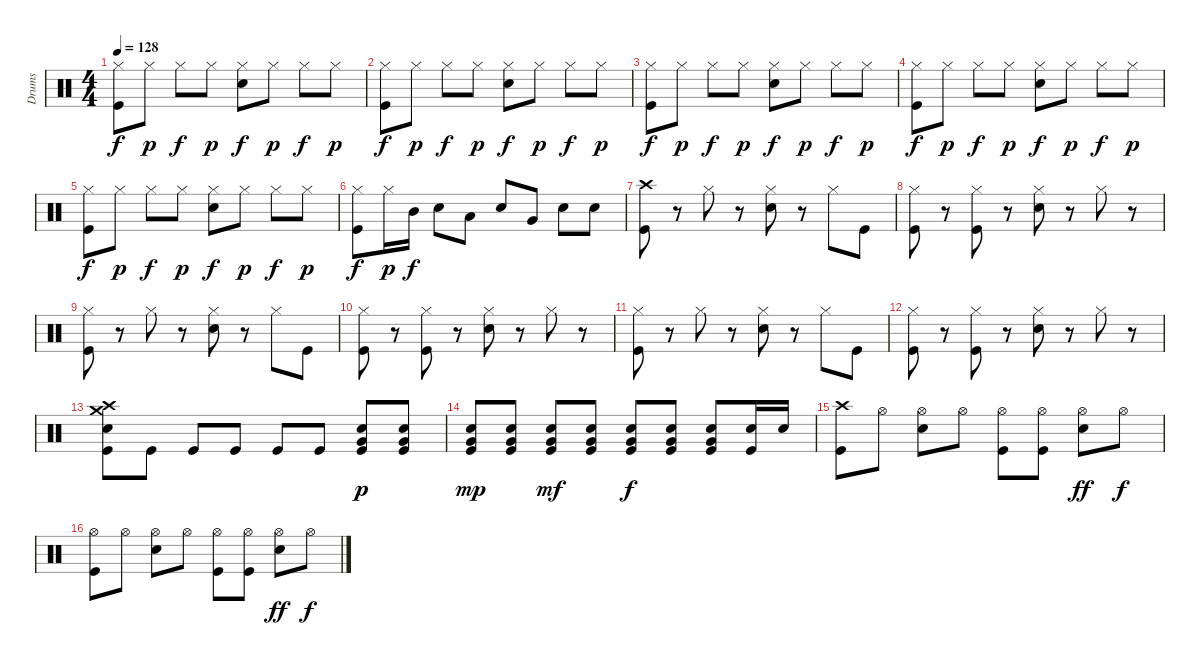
\track ("Drums" "Drums") {instrument percussion}
\staff {score}
\articulation defaults
\ts (4 4)
\tempo 128
\clef neutral
\ks c
("Hi-Hat (closed)" "Kick (hit)").8{dy f} "Hi-Hat (closed)".8{dy p} "Hi-Hat (closed)".8{dy f} "Hi-Hat (closed)".8{dy p} ("Hi-Hat (closed)" "Snare (hit) 2").8{dy f} "Hi-Hat (closed)".8{dy p} "Hi-Hat (closed)".8{dy f} "Hi-Hat (closed)".8{dy p} |
("Hi-Hat (closed)" "Kick (hit)").8{dy f} "Hi-Hat (closed)".8{dy p} "Hi-Hat (closed)".8{dy f} "Hi-Hat (closed)".8{dy p} ("Hi-Hat (closed)" "Snare (hit) 2").8{dy f} "Hi-Hat (closed)".8{dy p} "Hi-Hat (closed)".8{dy f} "Hi-Hat (closed)".8{dy p} |
("Hi-Hat (closed)" "Kick (hit)").8{dy f} "Hi-Hat (closed)".8{dy p} "Hi-Hat (closed)".8{dy f} "Hi-Hat (closed)".8{dy p} ("Hi-Hat (closed)" "Snare (hit) 2").8{dy f} "Hi-Hat (closed)".8{dy p} "Hi-Hat (closed)".8{dy f} "Hi-Hat (closed)".8{dy p} |
("Hi-Hat (closed)" "Kick (hit)").8{dy f} "Hi-Hat (closed)".8{dy p} "Hi-Hat (closed)".8{dy f} "Hi-Hat (closed)".8{dy p} ("Hi-Hat (closed)" "Snare (hit) 2").8{dy f} "Hi-Hat (closed)".8{dy p} "Hi-Hat (closed)".8{dy f} "Hi-Hat (closed)".8{dy p} |
("Hi-Hat (closed)" "Kick (hit)").8{dy f} "Hi-Hat (closed)".8{dy p} "Hi-Hat (closed)".8{dy f} "Hi-Hat (closed)".8{dy p} ("Hi-Hat (closed)" "Snare (hit) 2").8{dy f} "Hi-Hat (closed)".8{dy p} "Hi-Hat (closed)".8{dy f} "Hi-Hat (closed)".8{dy p} |
("Hi-Hat (closed)" "Kick (hit)").8{dy f} "Hi-Hat (closed)".16{dy p} "Mid Tom (hit)".16{dy f} "Snare (hit) 2".8 "Low Tom (hit)".8 "Snare (hit) 2".8 "Very Low Tom (hit)".8 "Snare (hit) 2".8 "Snare (hit) 2".8 |
("Crash high (hit)" "Kick (hit)").8 r.8 "Hi-Hat (closed)".8 r.8 ("Hi-Hat (closed)" "Snare (hit) 2").8 r.8 "Hi-Hat (closed)".8 "Kick (hit)".8 |
("Hi-Hat (closed)" "Kick (hit)").8 r.8 ("Hi-Hat (closed)" "Kick (hit)").8 r.8 ("Hi-Hat (closed)" "Snare (hit) 2").8 r.8 "Hi-Hat (closed)".8 r.8 |
("Hi-Hat (closed)" "Kick (hit)").8 r.8 "Hi-Hat (closed)".8 r.8 ("Hi-Hat (closed)" "Snare (hit) 2").8 r.8 "Hi-Hat (closed)".8 "Kick (hit)".8 |
("Hi-Hat (closed)" "Kick (hit)").8 r.8 ("Hi-Hat (closed)" "Kick (hit)").8 r.8 ("Hi-Hat (closed)" "Snare (hit) 2").8 r.8 "Hi-Hat (closed)".8 r.8 |
("Hi-Hat (closed)" "Kick (hit)").8 r.8 "Hi-Hat (closed)".8 r.8 ("Hi-Hat (closed)" "Snare (hit) 2").8 r.8 "Hi-Hat (closed)".8 "Kick (hit)".8 |
("Hi-Hat (closed)" "Kick (hit)").8 r.8 ("Hi-Hat (closed)" "Kick (hit)").8 r.8 ("Hi-Hat (closed)" "Snare (hit) 2").8 r.8 "Hi-Hat (closed)".8 r.8 |
("Crash high (hit)" "Crash medium (hit)" "Snare (hit) 2" "Kick (hit)").8 "Kick (hit)".8 "Kick (hit)".8 "Kick (hit)".8 "Kick (hit)".8 "Kick (hit)".8 ("Very Low Tom (hit)" "Snare (hit) 2" "Kick (hit)").8{dy p} ("Very Low Tom (hit)" "Snare (hit) 2" "Kick (hit)").8 |
("Very Low Tom (hit)" "Snare (hit) 2" "Kick (hit)").8{dy mp} ("Very Low Tom (hit)" "Snare (hit) 2" "Kick (hit)").8 ("Very Low Tom (hit)" "Snare (hit) 2" "Kick (hit)").8{dy mf} ("Very Low Tom (hit)" "Snare (hit) 2" "Kick (hit)").8 ("Very Low Tom (hit)" "Snare (hit) 2" "Kick (hit)").8{dy f} ("Very Low Tom (hit)" "Snare (hit) 2" "Kick (hit)").8 ("Very Low Tom (hit)" "Snare (hit) 2" "Kick (hit)").8 ("Snare (hit) 2" "Kick (hit)").16 "Snare (hit) 2".16 |
("Crash high (hit)" "Kick (hit)").8 "Hi-Hat (open)".8 ("Hi-Hat (open)" "Snare (hit) 2").8 "Hi-Hat (open)".8 ("Hi-Hat (open)" "Kick (hit)").8 ("Hi-Hat (open)" "Kick (hit)").8 ("Hi-Hat (open)" "Snare (hit) 2").8{dy ff} "Hi-Hat (open)".8{dy f} |
("Hi-Hat (open)" "Kick (hit)").8 "Hi-Hat (open)".8 ("Hi-Hat (open)" "Snare (hit) 2").8 "Hi-Hat (open)".8 ("Hi-Hat (open)" "Kick (hit)").8 ("Hi-Hat (open)" "Kick (hit)").8 ("Hi-Hat (open)" "Snare (hit) 2").8{dy ff} "Hi-Hat (open)".8{dy f}
